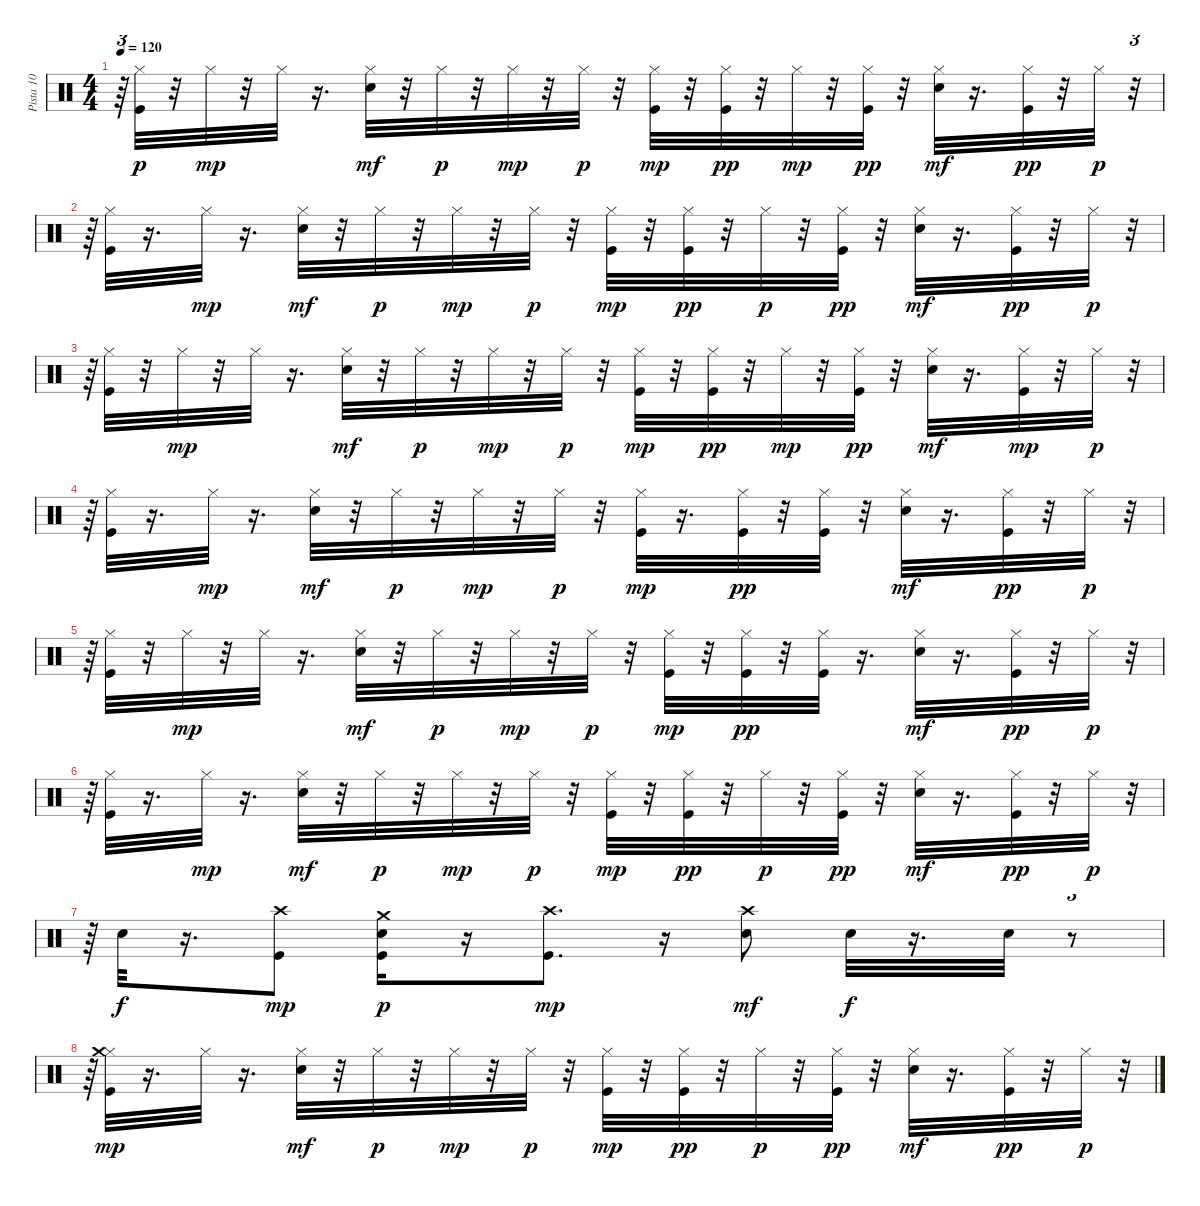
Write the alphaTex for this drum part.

\track ("Pista 10" "Pista 10") {instrument percussion}
\staff {score}
\articulation defaults
\ts (4 4)
\tempo 120
\clef neutral
\ks c
r.64{tu (3 2) dy p} ("Kick (hit)" "Hi-Hat (closed)").32 r.32 "Hi-Hat (closed)".32{dy mp} r.32 "Hi-Hat (closed)".32 r.16{d} ("Hi-Hat (closed)" "Snare (hit) 2").32{dy mf} r.32 "Hi-Hat (closed)".32{dy p} r.32 "Hi-Hat (closed)".32{dy mp} r.32 "Hi-Hat (closed)".32{dy p} r.32 ("Kick (hit)" "Hi-Hat (closed)").32{dy mp} r.32 ("Hi-Hat (closed)" "Kick (hit)").32{dy pp} r.32 "Hi-Hat (closed)".32{dy mp} r.32 ("Hi-Hat (closed)" "Kick (hit)").32{dy pp} r.32 ("Hi-Hat (closed)" "Snare (hit) 2").32{dy mf} r.16{d} ("Hi-Hat (closed)" "Kick (hit)").32{dy pp} r.32 "Hi-Hat (closed)".32{dy p} r.32{tu (3 2)} |
r.64{tu (3 2)} ("Kick (hit)" "Hi-Hat (closed)").32 r.16{d} "Hi-Hat (closed)".32{dy mp} r.16{d} ("Hi-Hat (closed)" "Snare (hit) 2").32{dy mf} r.32 "Hi-Hat (closed)".32{dy p} r.32 "Hi-Hat (closed)".32{dy mp} r.32 "Hi-Hat (closed)".32{dy p} r.32 ("Kick (hit)" "Hi-Hat (closed)").32{dy mp} r.32 ("Hi-Hat (closed)" "Kick (hit)").32{dy pp} r.32 "Hi-Hat (closed)".32{dy p} r.32 ("Hi-Hat (closed)" "Kick (hit)").32{dy pp} r.32 ("Hi-Hat (closed)" "Snare (hit) 2").32{dy mf} r.16{d} ("Hi-Hat (closed)" "Kick (hit)").32{dy pp} r.32 "Hi-Hat (closed)".32{dy p} r.32{tu (3 2)} |
r.64{tu (3 2)} ("Kick (hit)" "Hi-Hat (closed)").32 r.32 "Hi-Hat (closed)".32{dy mp} r.32 "Hi-Hat (closed)".32 r.16{d} ("Hi-Hat (closed)" "Snare (hit) 2").32{dy mf} r.32 "Hi-Hat (closed)".32{dy p} r.32 "Hi-Hat (closed)".32{dy mp} r.32 "Hi-Hat (closed)".32{dy p} r.32 ("Kick (hit)" "Hi-Hat (closed)").32{dy mp} r.32 ("Kick (hit)" "Hi-Hat (closed)").32{dy pp} r.32 "Hi-Hat (closed)".32{dy mp} r.32 ("Hi-Hat (closed)" "Kick (hit)").32{dy pp} r.32 ("Hi-Hat (closed)" "Snare (hit) 2").32{dy mf} r.16{d} ("Kick (hit)" "Hi-Hat (closed)").32{dy mp} r.32 "Hi-Hat (closed)".32{dy p} r.32{tu (3 2)} |
r.64{tu (3 2)} ("Kick (hit)" "Hi-Hat (closed)").32 r.16{d} "Hi-Hat (closed)".32{dy mp} r.16{d} ("Hi-Hat (closed)" "Snare (hit) 2").32{dy mf} r.32 "Hi-Hat (closed)".32{dy p} r.32 "Hi-Hat (closed)".32{dy mp} r.32 "Hi-Hat (closed)".32{dy p} r.32 ("Kick (hit)" "Hi-Hat (closed)").32{dy mp} r.16{d} ("Hi-Hat (closed)" "Kick (hit)").32{dy pp} r.32 ("Hi-Hat (closed)" "Kick (hit)").32 r.32 ("Hi-Hat (closed)" "Snare (hit) 2").32{dy mf} r.16{d} ("Hi-Hat (closed)" "Kick (hit)").32{dy pp} r.32 "Hi-Hat (closed)".32{dy p} r.32{tu (3 2)} |
r.64{tu (3 2)} ("Kick (hit)" "Hi-Hat (closed)").32 r.32 "Hi-Hat (closed)".32{dy mp} r.32 "Hi-Hat (closed)".32 r.16{d} ("Hi-Hat (closed)" "Snare (hit) 2").32{dy mf} r.32 "Hi-Hat (closed)".32{dy p} r.32 "Hi-Hat (closed)".32{dy mp} r.32 "Hi-Hat (closed)".32{dy p} r.32 ("Kick (hit)" "Hi-Hat (closed)").32{dy mp} r.32 ("Hi-Hat (closed)" "Kick (hit)").32{dy pp} r.32 ("Hi-Hat (closed)" "Kick (hit)").32 r.16{d} ("Hi-Hat (closed)" "Snare (hit) 2").32{dy mf} r.16{d} ("Hi-Hat (closed)" "Kick (hit)").32{dy pp} r.32 "Hi-Hat (closed)".32{dy p} r.32{tu (3 2)} |
r.64{tu (3 2)} ("Kick (hit)" "Hi-Hat (closed)").32 r.16{d} "Hi-Hat (closed)".32{dy mp} r.16{d} ("Hi-Hat (closed)" "Snare (hit) 2").32{dy mf} r.32 "Hi-Hat (closed)".32{dy p} r.32 "Hi-Hat (closed)".32{dy mp} r.32 "Hi-Hat (closed)".32{dy p} r.32 ("Kick (hit)" "Hi-Hat (closed)").32{dy mp} r.32 ("Hi-Hat (closed)" "Kick (hit)").32{dy pp} r.32 "Hi-Hat (closed)".32{dy p} r.32 ("Hi-Hat (closed)" "Kick (hit)").32{dy pp} r.32 ("Hi-Hat (closed)" "Snare (hit) 2").32{dy mf} r.16{d} ("Hi-Hat (closed)" "Kick (hit)").32{dy pp} r.32 "Hi-Hat (closed)".32{dy p} r.32{tu (3 2)} |
r.64{tu (3 2)} "Snare (hit) 2".32{dy f} r.16{d} ("Kick (hit)" "Crash high (hit)").8{dy mp} ("Kick (hit)" "Crash medium (hit)" "Snare (hit) 2").16{dy p} r.16 ("Kick (hit)" "Crash high (hit)").8{d dy mp} r.16 ("Crash high (hit)" "Snare (hit) 2").8{dy mf} "Snare (hit) 2".32{dy f} r.16{d} "Snare (hit) 2".32 r.8{tu (3 2)} |
r.64{tu (3 2)} ("Kick (hit)" "Hi-Hat (closed)" "Crash medium (hit)").32{dy mp} r.16{d} "Hi-Hat (closed)".32 r.16{d} ("Hi-Hat (closed)" "Snare (hit) 2").32{dy mf} r.32 "Hi-Hat (closed)".32{dy p} r.32 "Hi-Hat (closed)".32{dy mp} r.32 "Hi-Hat (closed)".32{dy p} r.32 ("Kick (hit)" "Hi-Hat (closed)").32{dy mp} r.32 ("Hi-Hat (closed)" "Kick (hit)").32{dy pp} r.32 "Hi-Hat (closed)".32{dy p} r.32 ("Hi-Hat (closed)" "Kick (hit)").32{dy pp} r.32 ("Hi-Hat (closed)" "Snare (hit) 2").32{dy mf} r.16{d} ("Hi-Hat (closed)" "Kick (hit)").32{dy pp} r.32 "Hi-Hat (closed)".32{dy p} r.32{tu (3 2)}
